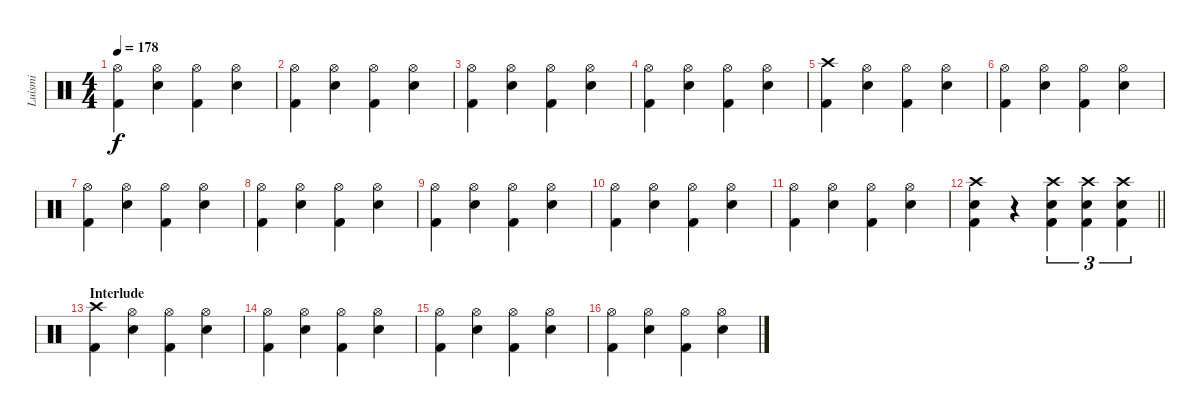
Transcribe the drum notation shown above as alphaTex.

\track ("Luismi" "Luismi") {instrument percussion}
\staff {score}
\articulation defaults
\ts (4 4)
\tempo 178
\clef neutral
\ks c
("Hi-Hat (open)" "Kick (hit) 2").4{dy f} ("Hi-Hat (open)" "Snare (hit) 2").4 ("Hi-Hat (open)" "Kick (hit) 2").4 ("Hi-Hat (open)" "Snare (hit) 2").4 |
("Hi-Hat (open)" "Kick (hit) 2").4 ("Hi-Hat (open)" "Snare (hit) 2").4 ("Hi-Hat (open)" "Kick (hit) 2").4 ("Hi-Hat (open)" "Snare (hit) 2").4 |
("Hi-Hat (open)" "Kick (hit) 2").4 ("Hi-Hat (open)" "Snare (hit) 2").4 ("Hi-Hat (open)" "Kick (hit) 2").4 ("Hi-Hat (open)" "Snare (hit) 2").4 |
("Hi-Hat (open)" "Kick (hit) 2").4 ("Hi-Hat (open)" "Snare (hit) 2").4 ("Hi-Hat (open)" "Kick (hit) 2").4 ("Hi-Hat (open)" "Snare (hit) 2").4 |
("Crash high (hit)" "Kick (hit) 2").4 ("Hi-Hat (open)" "Snare (hit) 2").4 ("Hi-Hat (open)" "Kick (hit) 2").4 ("Hi-Hat (open)" "Snare (hit) 2").4 |
("Hi-Hat (open)" "Kick (hit) 2").4 ("Hi-Hat (open)" "Snare (hit) 2").4 ("Hi-Hat (open)" "Kick (hit) 2").4 ("Hi-Hat (open)" "Snare (hit) 2").4 |
("Hi-Hat (open)" "Kick (hit) 2").4 ("Hi-Hat (open)" "Snare (hit) 2").4 ("Hi-Hat (open)" "Kick (hit) 2").4 ("Hi-Hat (open)" "Snare (hit) 2").4 |
("Hi-Hat (open)" "Kick (hit) 2").4 ("Hi-Hat (open)" "Snare (hit) 2").4 ("Hi-Hat (open)" "Kick (hit) 2").4 ("Hi-Hat (open)" "Snare (hit) 2").4 |
("Hi-Hat (open)" "Kick (hit) 2").4 ("Hi-Hat (open)" "Snare (hit) 2").4 ("Hi-Hat (open)" "Kick (hit) 2").4 ("Hi-Hat (open)" "Snare (hit) 2").4 |
("Hi-Hat (open)" "Kick (hit) 2").4 ("Hi-Hat (open)" "Snare (hit) 2").4 ("Hi-Hat (open)" "Kick (hit) 2").4 ("Hi-Hat (open)" "Snare (hit) 2").4 |
("Hi-Hat (open)" "Kick (hit) 2").4 ("Hi-Hat (open)" "Snare (hit) 2").4 ("Hi-Hat (open)" "Kick (hit) 2").4 ("Hi-Hat (open)" "Snare (hit) 2").4 |
\barLineRight lightlight
("Crash high (hit)" "Snare (hit) 2" "Kick (hit) 2").4 r.4 ("Crash high (hit)" "Snare (hit) 2" "Kick (hit) 2").4{tu (3 2)} ("Crash high (hit)" "Snare (hit) 2" "Kick (hit) 2").4{tu (3 2)} ("Crash high (hit)" "Snare (hit) 2" "Kick (hit) 2").4{tu (3 2)} |
\section ("" "Interlude")
("Crash high (hit)" "Kick (hit) 2").4 ("Hi-Hat (open)" "Snare (hit) 2").4 ("Hi-Hat (open)" "Kick (hit) 2").4 ("Hi-Hat (open)" "Snare (hit) 2").4 |
("Hi-Hat (open)" "Kick (hit) 2").4 ("Hi-Hat (open)" "Snare (hit) 2").4 ("Hi-Hat (open)" "Kick (hit) 2").4 ("Hi-Hat (open)" "Snare (hit) 2").4 |
("Hi-Hat (open)" "Kick (hit) 2").4 ("Hi-Hat (open)" "Snare (hit) 2").4 ("Hi-Hat (open)" "Kick (hit) 2").4 ("Hi-Hat (open)" "Snare (hit) 2").4 |
("Hi-Hat (open)" "Kick (hit) 2").4 ("Hi-Hat (open)" "Snare (hit) 2").4 ("Hi-Hat (open)" "Kick (hit) 2").4 ("Hi-Hat (open)" "Snare (hit) 2").4
